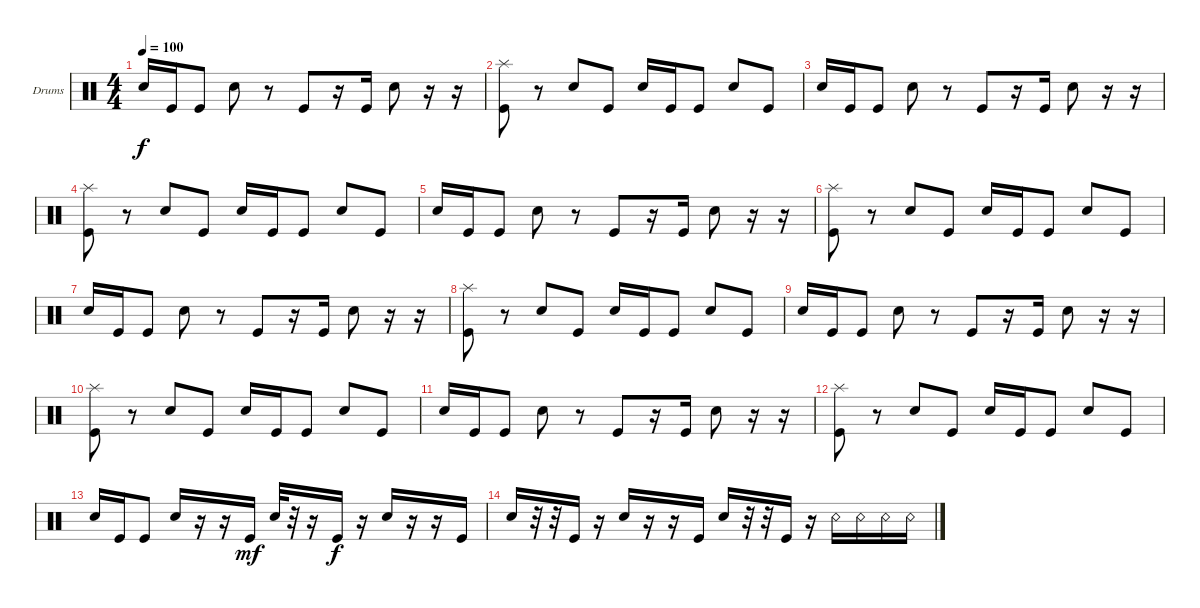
\bracketExtendMode groupsimilarinstruments
\firstSystemTrackNameOrientation horizontal
\otherSystemsTrackNameOrientation horizontal
\track ("Drumkit" "Drums") {instrument percussion}
\staff {score}
\articulation defaults
\ts (4 4)
\tempo 100
\clef neutral
\scale
0.333333
\ks c "Snare (hit) 2".16{dy f} "Kick (hit)".16 "Kick (hit)".8 "Snare (hit) 2".8
r.8 "Kick (hit)".8 r.16 "Kick (hit)".16 "Snare (hit) 2".8 r.16 r.16 |
\scale
0.333333 ("Kick (hit)" "Splash (hit)").8 r.8 "Snare (hit) 2".8 "Kick (hit)".8 "Snare (hit) 2".16 "Kick (hit)".16 "Kick (hit)".8 "Snare (hit) 2".8 "Kick (hit)".8 |
\scale
0.333333 "Snare (hit) 2".16 "Kick (hit)".16 "Kick (hit)".8 "Snare (hit) 2".8 r.8 "Kick (hit)".8 r.16 "Kick (hit)".16 "Snare (hit) 2".8 r.16 r.16 |
\scale
0.333333 ("Kick (hit)" "Splash (hit)").8 r.8 "Snare (hit) 2".8 "Kick (hit)".8 "Snare (hit) 2".16 "Kick (hit)".16 "Kick (hit)".8 "Snare (hit) 2".8 "Kick (hit)".8 |
\scale
0.333333 "Snare (hit) 2".16 "Kick (hit)".16 "Kick (hit)".8 "Snare (hit) 2".8 r.8 "Kick (hit)".8 r.16 "Kick (hit)".16 "Snare (hit) 2".8 r.16 r.16 |
\scale
0.333333 ("Kick (hit)" "Splash (hit)").8 r.8 "Snare (hit) 2".8 "Kick (hit)".8 "Snare (hit) 2".16 "Kick (hit)".16 "Kick (hit)".8 "Snare (hit) 2".8 "Kick (hit)".8 |
\scale
0.333333 "Snare (hit) 2".16 "Kick (hit)".16 "Kick (hit)".8 "Snare (hit) 2".8 r.8 "Kick (hit)".8 r.16 "Kick (hit)".16 "Snare (hit) 2".8 r.16 r.16 |
\scale
0.333333 ("Kick (hit)" "Splash (hit)").8 r.8 "Snare (hit) 2".8 "Kick (hit)".8 "Snare (hit) 2".16 "Kick (hit)".16 "Kick (hit)".8 "Snare (hit) 2".8 "Kick (hit)".8 |
\scale
0.333333 "Snare (hit) 2".16 "Kick (hit)".16 "Kick (hit)".8 "Snare (hit) 2".8 r.8 "Kick (hit)".8 r.16 "Kick (hit)".16 "Snare (hit) 2".8 r.16 r.16 |
\scale
0.333333 ("Kick (hit)" "Splash (hit)").8 r.8 "Snare (hit) 2".8 "Kick (hit)".8 "Snare (hit) 2".16 "Kick (hit)".16 "Kick (hit)".8 "Snare (hit) 2".8 "Kick (hit)".8 |
\scale
0.333333 "Snare (hit) 2".16 "Kick (hit)".16 "Kick (hit)".8 "Snare (hit) 2".8 r.8 "Kick (hit)".8 r.16 "Kick (hit)".16 "Snare (hit) 2".8 r.16 r.16 |
\scale
0.333333 ("Kick (hit)" "Splash (hit)").8 r.8 "Snare (hit) 2".8 "Kick (hit)".8 "Snare (hit) 2".16 "Kick (hit)".16 "Kick (hit)".8 "Snare (hit) 2".8 "Kick (hit)".8 |
"Snare (hit) 2".16 "Kick (hit)".16 "Kick (hit)".8 "Snare (hit) 2".16 r.16 r.16 "Kick (hit)".16{dy mf} "Snare (hit) 2".32 r.32 r.16 "Kick (hit)".16{dy f} r.16 "Snare (hit) 2".16 r.16 r.16 "Kick (hit)".16 |
"Snare (hit) 2".16 r.32 r.32 "Kick (hit)".16 r.16 "Snare (hit) 2".16 r.16 r.16 "Kick (hit)".16 "Snare (hit) 2".16 r.32 r.32 "Kick (hit)".16 r.16 "Snare (rim shot)".16 "Snare (rim shot)".16 "Snare (rim shot)".16 "Snare (rim shot)".16
